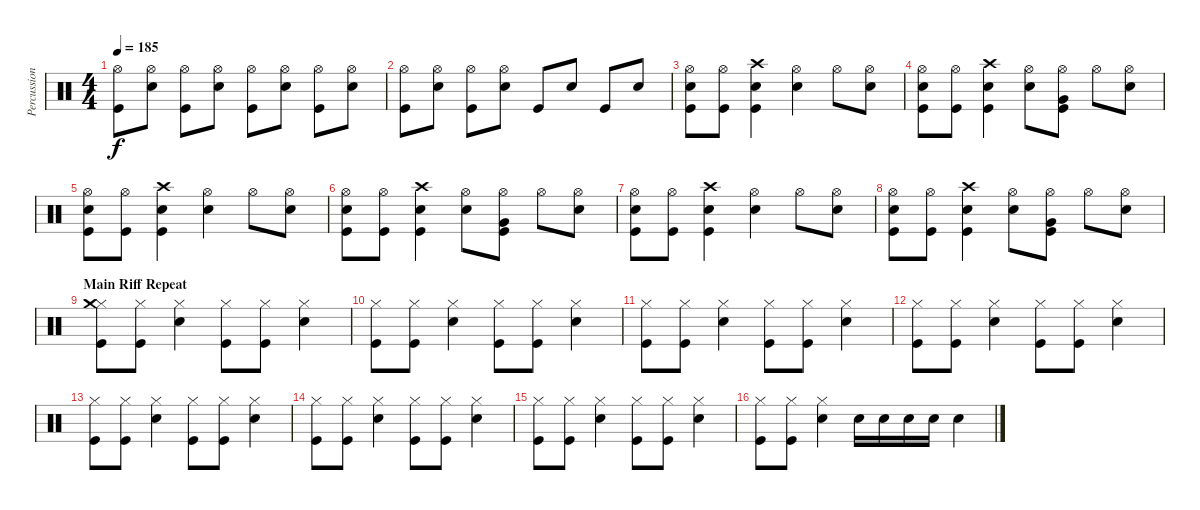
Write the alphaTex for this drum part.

\track ("Percussion" "Percussion") {instrument percussion}
\staff {score}
\articulation defaults
\ts (4 4)
\tempo 185
\clef neutral
\ks c
("Hi-Hat (open)" "Kick (hit)").8{dy f} ("Hi-Hat (open)" "Snare (hit) 2").8 ("Hi-Hat (open)" "Kick (hit)").8 ("Hi-Hat (open)" "Snare (hit) 2").8 ("Hi-Hat (open)" "Kick (hit)").8 ("Hi-Hat (open)" "Snare (hit) 2").8 ("Hi-Hat (open)" "Kick (hit)").8 ("Hi-Hat (open)" "Snare (hit) 2").8 |
("Hi-Hat (open)" "Kick (hit)").8 ("Hi-Hat (open)" "Snare (hit) 2").8 ("Hi-Hat (open)" "Kick (hit)").8 ("Hi-Hat (open)" "Snare (hit) 2").8 "Kick (hit)".8 "Snare (hit) 2".8 "Kick (hit)".8 "Snare (hit) 2".8 |
("Hi-Hat (open)" "Snare (hit) 2" "Kick (hit)").8 ("Hi-Hat (open)" "Kick (hit)").8 ("Crash high (hit)" "Snare (hit) 2" "Kick (hit)").4 ("Hi-Hat (open)" "Snare (hit) 2").4 "Hi-Hat (open)".8 ("Hi-Hat (open)" "Snare (hit) 2").8 |
("Hi-Hat (open)" "Snare (hit) 2" "Kick (hit)").8 ("Hi-Hat (open)" "Kick (hit)").8 ("Crash high (hit)" "Snare (hit) 2" "Kick (hit)").4 ("Hi-Hat (open)" "Snare (hit) 2").8 ("Hi-Hat (open)" "Very Low Tom (hit)" "Kick (hit)").8 "Hi-Hat (open)".8 ("Hi-Hat (open)" "Snare (hit) 2").8 |
("Hi-Hat (open)" "Snare (hit) 2" "Kick (hit)").8 ("Hi-Hat (open)" "Kick (hit)").8 ("Crash high (hit)" "Snare (hit) 2" "Kick (hit)").4 ("Hi-Hat (open)" "Snare (hit) 2").4 "Hi-Hat (open)".8 ("Hi-Hat (open)" "Snare (hit) 2").8 |
("Hi-Hat (open)" "Snare (hit) 2" "Kick (hit)").8 ("Hi-Hat (open)" "Kick (hit)").8 ("Crash high (hit)" "Snare (hit) 2" "Kick (hit)").4 ("Hi-Hat (open)" "Snare (hit) 2").8 ("Hi-Hat (open)" "Very Low Tom (hit)" "Kick (hit)").8 "Hi-Hat (open)".8 ("Hi-Hat (open)" "Snare (hit) 2").8 |
("Hi-Hat (open)" "Snare (hit) 2" "Kick (hit)").8 ("Hi-Hat (open)" "Kick (hit)").8 ("Crash high (hit)" "Snare (hit) 2" "Kick (hit)").4 ("Hi-Hat (open)" "Snare (hit) 2").4 "Hi-Hat (open)".8 ("Hi-Hat (open)" "Snare (hit) 2").8 |
("Hi-Hat (open)" "Snare (hit) 2" "Kick (hit)").8 ("Hi-Hat (open)" "Kick (hit)").8 ("Crash high (hit)" "Snare (hit) 2" "Kick (hit)").4 ("Hi-Hat (open)" "Snare (hit) 2").8 ("Hi-Hat (open)" "Very Low Tom (hit)" "Kick (hit)").8 "Hi-Hat (open)".8 ("Hi-Hat (open)" "Snare (hit) 2").8 |
\section ("" "Main Riff Repeat")
("Hi-Hat (closed)" "Crash medium (hit)" "Kick (hit)").8 ("Hi-Hat (closed)" "Kick (hit)").8 ("Hi-Hat (closed)" "Snare (hit) 2").4 ("Hi-Hat (closed)" "Kick (hit)").8 ("Hi-Hat (closed)" "Kick (hit)").8 ("Hi-Hat (closed)" "Snare (hit) 2").4 |
("Hi-Hat (closed)" "Kick (hit)").8 ("Hi-Hat (closed)" "Kick (hit)").8 ("Hi-Hat (closed)" "Snare (hit) 2").4 ("Hi-Hat (closed)" "Kick (hit)").8 ("Hi-Hat (closed)" "Kick (hit)").8 ("Hi-Hat (closed)" "Snare (hit) 2").4 |
("Hi-Hat (closed)" "Kick (hit)").8 ("Hi-Hat (closed)" "Kick (hit)").8 ("Hi-Hat (closed)" "Snare (hit) 2").4 ("Hi-Hat (closed)" "Kick (hit)").8 ("Hi-Hat (closed)" "Kick (hit)").8 ("Hi-Hat (closed)" "Snare (hit) 2").4 |
("Hi-Hat (closed)" "Kick (hit)").8 ("Hi-Hat (closed)" "Kick (hit)").8 ("Hi-Hat (closed)" "Snare (hit) 2").4 ("Hi-Hat (closed)" "Kick (hit)").8 ("Hi-Hat (closed)" "Kick (hit)").8 ("Hi-Hat (closed)" "Snare (hit) 2").4 |
("Hi-Hat (closed)" "Kick (hit)").8 ("Hi-Hat (closed)" "Kick (hit)").8 ("Hi-Hat (closed)" "Snare (hit) 2").4 ("Hi-Hat (closed)" "Kick (hit)").8 ("Hi-Hat (closed)" "Kick (hit)").8 ("Hi-Hat (closed)" "Snare (hit) 2").4 |
("Hi-Hat (closed)" "Kick (hit)").8 ("Hi-Hat (closed)" "Kick (hit)").8 ("Hi-Hat (closed)" "Snare (hit) 2").4 ("Hi-Hat (closed)" "Kick (hit)").8 ("Hi-Hat (closed)" "Kick (hit)").8 ("Hi-Hat (closed)" "Snare (hit) 2").4 |
("Hi-Hat (closed)" "Kick (hit)").8 ("Hi-Hat (closed)" "Kick (hit)").8 ("Hi-Hat (closed)" "Snare (hit) 2").4 ("Hi-Hat (closed)" "Kick (hit)").8 ("Hi-Hat (closed)" "Kick (hit)").8 ("Hi-Hat (closed)" "Snare (hit) 2").4 |
("Hi-Hat (closed)" "Kick (hit)").8 ("Hi-Hat (closed)" "Kick (hit)").8 ("Hi-Hat (closed)" "Snare (hit) 2").4 "Snare (hit) 2".16 "Snare (hit) 2".16 "Snare (hit) 2".16 "Snare (hit) 2".16 "Snare (hit) 2".4
